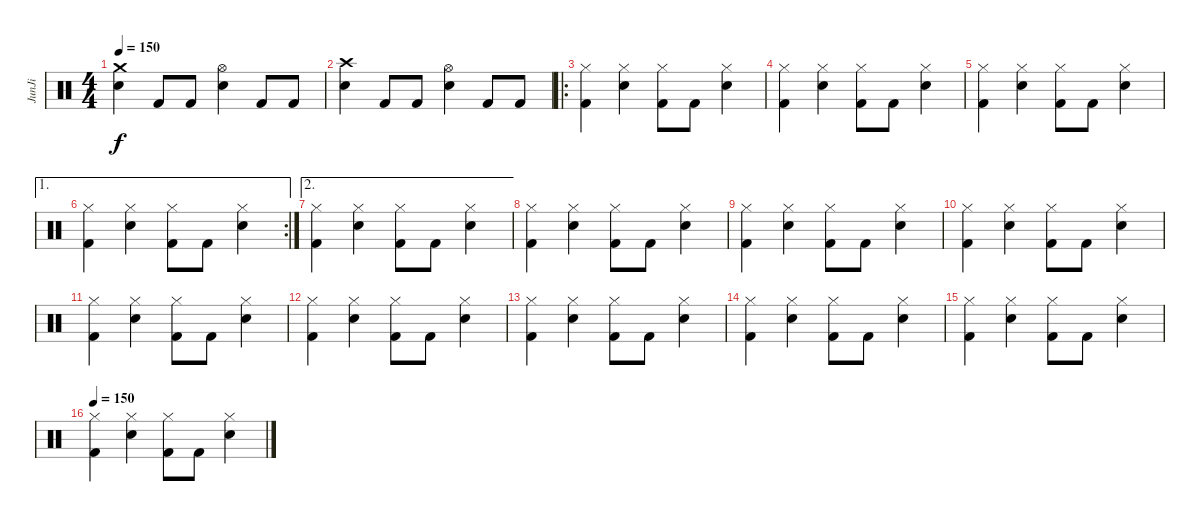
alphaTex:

\track ("JunJi" "JunJi") {instrument percussion}
\staff {score}
\articulation defaults
\ts (4 4)
\tempo 150
\clef neutral
\ks c
("Crash medium (hit)" "Electric Snare (hit)").4{dy f} "Kick (hit) 2".8 "Kick (hit) 2".8 ("Hi-Hat (open)" "Electric Snare (hit)").4 "Kick (hit) 2".8 "Kick (hit) 2".8 |
("Crash high (hit)" "Electric Snare (hit)").4 "Kick (hit) 2".8 "Kick (hit) 2".8 ("Hi-Hat (open)" "Electric Snare (hit)").4 "Kick (hit) 2".8 "Kick (hit) 2".8 |
\ro
("Hi-Hat (closed)" "Kick (hit) 2").4 ("Electric Snare (hit)" "Hi-Hat (closed)").4 ("Hi-Hat (closed)" "Kick (hit) 2").8 "Kick (hit) 2".8 ("Electric Snare (hit)" "Hi-Hat (closed)").4 |
("Hi-Hat (closed)" "Kick (hit) 2").4 ("Electric Snare (hit)" "Hi-Hat (closed)").4 ("Hi-Hat (closed)" "Kick (hit) 2").8 "Kick (hit) 2".8 ("Electric Snare (hit)" "Hi-Hat (closed)").4 |
("Hi-Hat (closed)" "Kick (hit) 2").4 ("Electric Snare (hit)" "Hi-Hat (closed)").4 ("Hi-Hat (closed)" "Kick (hit) 2").8 "Kick (hit) 2".8 ("Electric Snare (hit)" "Hi-Hat (closed)").4 |
\ae 1
\rc 2
("Hi-Hat (closed)" "Kick (hit) 2").4 ("Electric Snare (hit)" "Hi-Hat (closed)").4 ("Hi-Hat (closed)" "Kick (hit) 2").8 "Kick (hit) 2".8 ("Electric Snare (hit)" "Hi-Hat (closed)").4 |
\ae 2
("Hi-Hat (closed)" "Kick (hit) 2").4 ("Electric Snare (hit)" "Hi-Hat (closed)").4 ("Hi-Hat (closed)" "Kick (hit) 2").8 "Kick (hit) 2".8 ("Electric Snare (hit)" "Hi-Hat (closed)").4 |
("Hi-Hat (closed)" "Kick (hit) 2").4 ("Electric Snare (hit)" "Hi-Hat (closed)").4 ("Hi-Hat (closed)" "Kick (hit) 2").8 "Kick (hit) 2".8 ("Electric Snare (hit)" "Hi-Hat (closed)").4 |
("Hi-Hat (closed)" "Kick (hit) 2").4 ("Electric Snare (hit)" "Hi-Hat (closed)").4 ("Hi-Hat (closed)" "Kick (hit) 2").8 "Kick (hit) 2".8 ("Electric Snare (hit)" "Hi-Hat (closed)").4 |
("Hi-Hat (closed)" "Kick (hit) 2").4 ("Electric Snare (hit)" "Hi-Hat (closed)").4 ("Hi-Hat (closed)" "Kick (hit) 2").8 "Kick (hit) 2".8 ("Electric Snare (hit)" "Hi-Hat (closed)").4 |
("Hi-Hat (closed)" "Kick (hit) 2").4 ("Electric Snare (hit)" "Hi-Hat (closed)").4 ("Hi-Hat (closed)" "Kick (hit) 2").8 "Kick (hit) 2".8 ("Electric Snare (hit)" "Hi-Hat (closed)").4 |
("Hi-Hat (closed)" "Kick (hit) 2").4 ("Electric Snare (hit)" "Hi-Hat (closed)").4 ("Hi-Hat (closed)" "Kick (hit) 2").8 "Kick (hit) 2".8 ("Electric Snare (hit)" "Hi-Hat (closed)").4 |
("Hi-Hat (closed)" "Kick (hit) 2").4 ("Electric Snare (hit)" "Hi-Hat (closed)").4 ("Hi-Hat (closed)" "Kick (hit) 2").8 "Kick (hit) 2".8 ("Electric Snare (hit)" "Hi-Hat (closed)").4 |
("Hi-Hat (closed)" "Kick (hit) 2").4 ("Electric Snare (hit)" "Hi-Hat (closed)").4 ("Hi-Hat (closed)" "Kick (hit) 2").8 "Kick (hit) 2".8 ("Electric Snare (hit)" "Hi-Hat (closed)").4 |
("Hi-Hat (closed)" "Kick (hit) 2").4 ("Electric Snare (hit)" "Hi-Hat (closed)").4 ("Hi-Hat (closed)" "Kick (hit) 2").8 "Kick (hit) 2".8 ("Electric Snare (hit)" "Hi-Hat (closed)").4 |
\tempo 150
("Hi-Hat (closed)" "Kick (hit) 2").4 ("Electric Snare (hit)" "Hi-Hat (closed)").4 ("Hi-Hat (closed)" "Kick (hit) 2").8 "Kick (hit) 2".8 ("Electric Snare (hit)" "Hi-Hat (closed)").4
